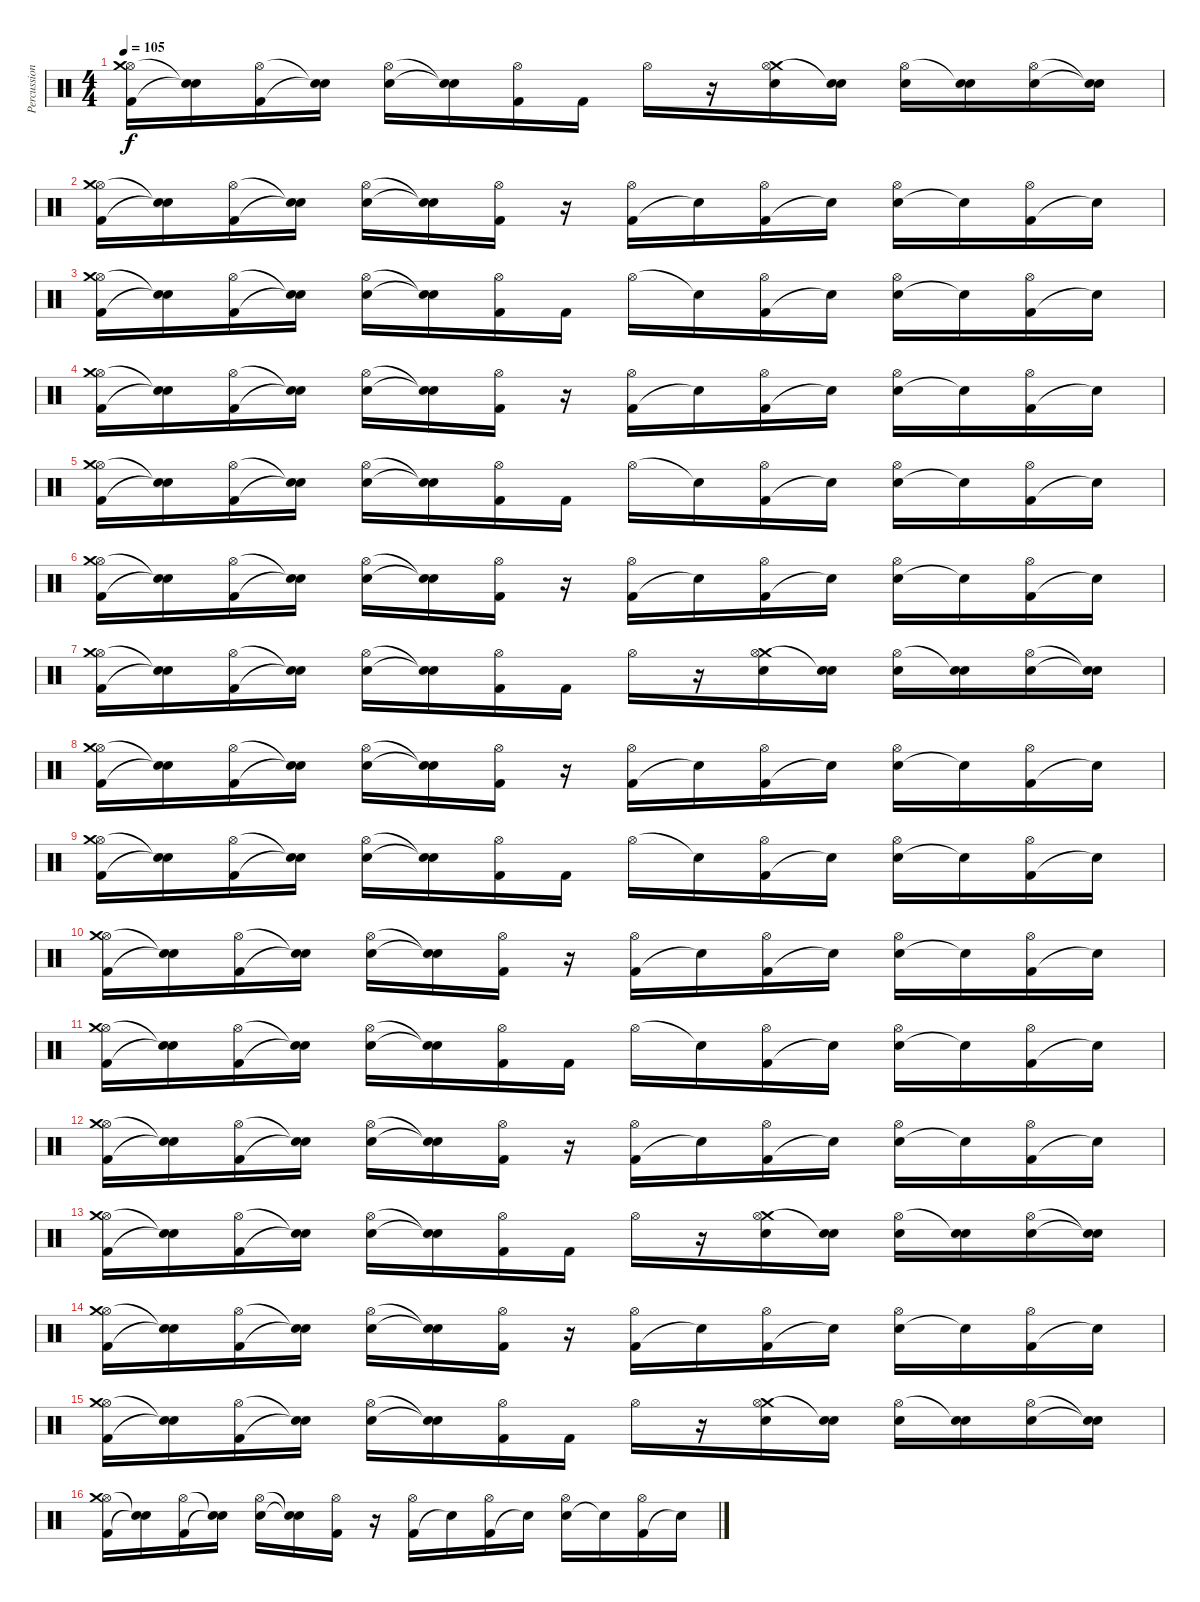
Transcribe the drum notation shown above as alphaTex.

\track ("Percussion" "Percussion") {instrument percussion}
\staff {score}
\articulation defaults
\ts (4 4)
\tempo 105
\clef neutral
\ks c
("Kick (hit) 2" "Hi-Hat (open)" "Crash medium (hit)").16{dy f} ("Snare (hit)"{t} "Snare (hit)"{t}).16 ("Kick (hit) 2" "Hi-Hat (open)").16 ("Snare (hit)"{t} "Snare (hit)"{t}).16 ("Electric Snare (hit)" "Hi-Hat (open)").16 ("Snare (hit)"{t} "Snare (hit)"{t}).16 ("Kick (hit) 2" "Hi-Hat (open)").16 "Kick (hit) 2".16 "Hi-Hat (open)".16 r.16 ("Snare (hit) 2" "Crash medium (hit)" "Hi-Hat (open)").16 ("Snare (hit) 2" "Snare (hit)"{t}).16 ("Snare (hit) 2" "Hi-Hat (open)").16 ("Snare (hit) 2" "Snare (hit)"{t}).16 ("Snare (hit) 2" "Hi-Hat (open)").16 ("Snare (hit) 2"{t} "Snare (hit)"{t}).16 |
("Kick (hit) 2" "Hi-Hat (open)" "Crash medium (hit)").16 ("Snare (hit)"{t} "Snare (hit)"{t}).16 ("Kick (hit) 2" "Hi-Hat (open)").16 ("Snare (hit)"{t} "Snare (hit)"{t}).16 ("Electric Snare (hit)" "Hi-Hat (open)").16 ("Snare (hit)"{t} "Snare (hit)"{t}).16 ("Kick (hit) 2" "Hi-Hat (open)").16 r.16 ("Kick (hit) 2" "Hi-Hat (open)").16 "Snare (hit)"{t}.16 ("Kick (hit) 2" "Hi-Hat (open)").16 "Snare (hit)"{t}.16 ("Snare (hit) 2" "Hi-Hat (open)").16 "Snare (hit)"{t}.16 ("Kick (hit) 2" "Hi-Hat (open)").16 "Snare (hit)"{t}.16 |
("Kick (hit) 2" "Hi-Hat (open)" "Crash medium (hit)").16 ("Snare (hit)"{t} "Snare (hit)"{t}).16 ("Kick (hit) 2" "Hi-Hat (open)").16 ("Snare (hit)"{t} "Snare (hit)"{t}).16 ("Electric Snare (hit)" "Hi-Hat (open)").16 ("Snare (hit)"{t} "Snare (hit)"{t}).16 ("Kick (hit) 2" "Hi-Hat (open)").16 "Kick (hit) 2".16 "Hi-Hat (open)".16 "Snare (hit)"{t}.16 ("Kick (hit) 2" "Hi-Hat (open)").16 "Snare (hit)"{t}.16 ("Snare (hit) 2" "Hi-Hat (open)").16 "Snare (hit)"{t}.16 ("Kick (hit) 2" "Hi-Hat (open)").16 "Snare (hit)"{t}.16 |
("Kick (hit) 2" "Hi-Hat (open)" "Crash medium (hit)").16 ("Snare (hit)"{t} "Snare (hit)"{t}).16 ("Kick (hit) 2" "Hi-Hat (open)").16 ("Snare (hit)"{t} "Snare (hit)"{t}).16 ("Electric Snare (hit)" "Hi-Hat (open)").16 ("Snare (hit)"{t} "Snare (hit)"{t}).16 ("Kick (hit) 2" "Hi-Hat (open)").16 r.16 ("Kick (hit) 2" "Hi-Hat (open)").16 "Snare (hit)"{t}.16 ("Kick (hit) 2" "Hi-Hat (open)").16 "Snare (hit)"{t}.16 ("Snare (hit) 2" "Hi-Hat (open)").16 "Snare (hit)"{t}.16 ("Kick (hit) 2" "Hi-Hat (open)").16 "Snare (hit)"{t}.16 |
("Kick (hit) 2" "Hi-Hat (open)" "Crash medium (hit)").16 ("Snare (hit)"{t} "Snare (hit)"{t}).16 ("Kick (hit) 2" "Hi-Hat (open)").16 ("Snare (hit)"{t} "Snare (hit)"{t}).16 ("Electric Snare (hit)" "Hi-Hat (open)").16 ("Snare (hit)"{t} "Snare (hit)"{t}).16 ("Kick (hit) 2" "Hi-Hat (open)").16 "Kick (hit) 2".16 "Hi-Hat (open)".16 "Snare (hit)"{t}.16 ("Kick (hit) 2" "Hi-Hat (open)").16 "Snare (hit)"{t}.16 ("Snare (hit) 2" "Hi-Hat (open)").16 "Snare (hit)"{t}.16 ("Kick (hit) 2" "Hi-Hat (open)").16 "Snare (hit)"{t}.16 |
("Kick (hit) 2" "Hi-Hat (open)" "Crash medium (hit)").16 ("Snare (hit)"{t} "Snare (hit)"{t}).16 ("Kick (hit) 2" "Hi-Hat (open)").16 ("Snare (hit)"{t} "Snare (hit)"{t}).16 ("Electric Snare (hit)" "Hi-Hat (open)").16 ("Snare (hit)"{t} "Snare (hit)"{t}).16 ("Kick (hit) 2" "Hi-Hat (open)").16 r.16 ("Kick (hit) 2" "Hi-Hat (open)").16 "Snare (hit)"{t}.16 ("Kick (hit) 2" "Hi-Hat (open)").16 "Snare (hit)"{t}.16 ("Snare (hit) 2" "Hi-Hat (open)").16 "Snare (hit)"{t}.16 ("Kick (hit) 2" "Hi-Hat (open)").16 "Snare (hit)"{t}.16 |
("Kick (hit) 2" "Hi-Hat (open)" "Crash medium (hit)").16 ("Snare (hit)"{t} "Snare (hit)"{t}).16 ("Kick (hit) 2" "Hi-Hat (open)").16 ("Snare (hit)"{t} "Snare (hit)"{t}).16 ("Electric Snare (hit)" "Hi-Hat (open)").16 ("Snare (hit)"{t} "Snare (hit)"{t}).16 ("Kick (hit) 2" "Hi-Hat (open)").16 "Kick (hit) 2".16 "Hi-Hat (open)".16 r.16 ("Snare (hit) 2" "Crash medium (hit)" "Hi-Hat (open)").16 ("Snare (hit) 2" "Snare (hit)"{t}).16 ("Snare (hit) 2" "Hi-Hat (open)").16 ("Snare (hit) 2" "Snare (hit)"{t}).16 ("Snare (hit) 2" "Hi-Hat (open)").16 ("Snare (hit) 2"{t} "Snare (hit)"{t}).16 |
("Kick (hit) 2" "Hi-Hat (open)" "Crash medium (hit)").16 ("Snare (hit)"{t} "Snare (hit)"{t}).16 ("Kick (hit) 2" "Hi-Hat (open)").16 ("Snare (hit)"{t} "Snare (hit)"{t}).16 ("Electric Snare (hit)" "Hi-Hat (open)").16 ("Snare (hit)"{t} "Snare (hit)"{t}).16 ("Kick (hit) 2" "Hi-Hat (open)").16 r.16 ("Kick (hit) 2" "Hi-Hat (open)").16 "Snare (hit)"{t}.16 ("Kick (hit) 2" "Hi-Hat (open)").16 "Snare (hit)"{t}.16 ("Snare (hit) 2" "Hi-Hat (open)").16 "Snare (hit)"{t}.16 ("Kick (hit) 2" "Hi-Hat (open)").16 "Snare (hit)"{t}.16 |
("Kick (hit) 2" "Hi-Hat (open)" "Crash medium (hit)").16 ("Snare (hit)"{t} "Snare (hit)"{t}).16 ("Kick (hit) 2" "Hi-Hat (open)").16 ("Snare (hit)"{t} "Snare (hit)"{t}).16 ("Electric Snare (hit)" "Hi-Hat (open)").16 ("Snare (hit)"{t} "Snare (hit)"{t}).16 ("Kick (hit) 2" "Hi-Hat (open)").16 "Kick (hit) 2".16 "Hi-Hat (open)".16 "Snare (hit)"{t}.16 ("Kick (hit) 2" "Hi-Hat (open)").16 "Snare (hit)"{t}.16 ("Snare (hit) 2" "Hi-Hat (open)").16 "Snare (hit)"{t}.16 ("Kick (hit) 2" "Hi-Hat (open)").16 "Snare (hit)"{t}.16 |
("Kick (hit) 2" "Hi-Hat (open)" "Crash medium (hit)").16 ("Snare (hit)"{t} "Snare (hit)"{t}).16 ("Kick (hit) 2" "Hi-Hat (open)").16 ("Snare (hit)"{t} "Snare (hit)"{t}).16 ("Electric Snare (hit)" "Hi-Hat (open)").16 ("Snare (hit)"{t} "Snare (hit)"{t}).16 ("Kick (hit) 2" "Hi-Hat (open)").16 r.16 ("Kick (hit) 2" "Hi-Hat (open)").16 "Snare (hit)"{t}.16 ("Kick (hit) 2" "Hi-Hat (open)").16 "Snare (hit)"{t}.16 ("Snare (hit) 2" "Hi-Hat (open)").16 "Snare (hit)"{t}.16 ("Kick (hit) 2" "Hi-Hat (open)").16 "Snare (hit)"{t}.16 |
("Kick (hit) 2" "Hi-Hat (open)" "Crash medium (hit)").16 ("Snare (hit)"{t} "Snare (hit)"{t}).16 ("Kick (hit) 2" "Hi-Hat (open)").16 ("Snare (hit)"{t} "Snare (hit)"{t}).16 ("Electric Snare (hit)" "Hi-Hat (open)").16 ("Snare (hit)"{t} "Snare (hit)"{t}).16 ("Kick (hit) 2" "Hi-Hat (open)").16 "Kick (hit) 2".16 "Hi-Hat (open)".16 "Snare (hit)"{t}.16 ("Kick (hit) 2" "Hi-Hat (open)").16 "Snare (hit)"{t}.16 ("Snare (hit) 2" "Hi-Hat (open)").16 "Snare (hit)"{t}.16 ("Kick (hit) 2" "Hi-Hat (open)").16 "Snare (hit)"{t}.16 |
("Kick (hit) 2" "Hi-Hat (open)" "Crash medium (hit)").16 ("Snare (hit)"{t} "Snare (hit)"{t}).16 ("Kick (hit) 2" "Hi-Hat (open)").16 ("Snare (hit)"{t} "Snare (hit)"{t}).16 ("Electric Snare (hit)" "Hi-Hat (open)").16 ("Snare (hit)"{t} "Snare (hit)"{t}).16 ("Kick (hit) 2" "Hi-Hat (open)").16 r.16 ("Kick (hit) 2" "Hi-Hat (open)").16 "Snare (hit)"{t}.16 ("Kick (hit) 2" "Hi-Hat (open)").16 "Snare (hit)"{t}.16 ("Snare (hit) 2" "Hi-Hat (open)").16 "Snare (hit)"{t}.16 ("Kick (hit) 2" "Hi-Hat (open)").16 "Snare (hit)"{t}.16 |
("Kick (hit) 2" "Hi-Hat (open)" "Crash medium (hit)").16 ("Snare (hit)"{t} "Snare (hit)"{t}).16 ("Kick (hit) 2" "Hi-Hat (open)").16 ("Snare (hit)"{t} "Snare (hit)"{t}).16 ("Electric Snare (hit)" "Hi-Hat (open)").16 ("Snare (hit)"{t} "Snare (hit)"{t}).16 ("Kick (hit) 2" "Hi-Hat (open)").16 "Kick (hit) 2".16 "Hi-Hat (open)".16 r.16 ("Snare (hit) 2" "Crash medium (hit)" "Hi-Hat (open)").16 ("Snare (hit) 2" "Snare (hit)"{t}).16 ("Snare (hit) 2" "Hi-Hat (open)").16 ("Snare (hit) 2" "Snare (hit)"{t}).16 ("Snare (hit) 2" "Hi-Hat (open)").16 ("Snare (hit) 2"{t} "Snare (hit)"{t}).16 |
("Kick (hit) 2" "Hi-Hat (open)" "Crash medium (hit)").16 ("Snare (hit)"{t} "Snare (hit)"{t}).16 ("Kick (hit) 2" "Hi-Hat (open)").16 ("Snare (hit)"{t} "Snare (hit)"{t}).16 ("Electric Snare (hit)" "Hi-Hat (open)").16 ("Snare (hit)"{t} "Snare (hit)"{t}).16 ("Kick (hit) 2" "Hi-Hat (open)").16 r.16 ("Kick (hit) 2" "Hi-Hat (open)").16 "Snare (hit)"{t}.16 ("Kick (hit) 2" "Hi-Hat (open)").16 "Snare (hit)"{t}.16 ("Snare (hit) 2" "Hi-Hat (open)").16 "Snare (hit)"{t}.16 ("Kick (hit) 2" "Hi-Hat (open)").16 "Snare (hit)"{t}.16 |
("Kick (hit) 2" "Hi-Hat (open)" "Crash medium (hit)").16 ("Snare (hit)"{t} "Snare (hit)"{t}).16 ("Kick (hit) 2" "Hi-Hat (open)").16 ("Snare (hit)"{t} "Snare (hit)"{t}).16 ("Electric Snare (hit)" "Hi-Hat (open)").16 ("Snare (hit)"{t} "Snare (hit)"{t}).16 ("Kick (hit) 2" "Hi-Hat (open)").16 "Kick (hit) 2".16 "Hi-Hat (open)".16 r.16 ("Snare (hit) 2" "Crash medium (hit)" "Hi-Hat (open)").16 ("Snare (hit) 2" "Snare (hit)"{t}).16 ("Snare (hit) 2" "Hi-Hat (open)").16 ("Snare (hit) 2" "Snare (hit)"{t}).16 ("Snare (hit) 2" "Hi-Hat (open)").16 ("Snare (hit) 2"{t} "Snare (hit)"{t}).16 |
("Kick (hit) 2" "Hi-Hat (open)" "Crash medium (hit)").16 ("Snare (hit)"{t} "Snare (hit)"{t}).16 ("Kick (hit) 2" "Hi-Hat (open)").16 ("Snare (hit)"{t} "Snare (hit)"{t}).16 ("Electric Snare (hit)" "Hi-Hat (open)").16 ("Snare (hit)"{t} "Snare (hit)"{t}).16 ("Kick (hit) 2" "Hi-Hat (open)").16 r.16 ("Kick (hit) 2" "Hi-Hat (open)").16 "Snare (hit)"{t}.16 ("Kick (hit) 2" "Hi-Hat (open)").16 "Snare (hit)"{t}.16 ("Snare (hit) 2" "Hi-Hat (open)").16 "Snare (hit)"{t}.16 ("Kick (hit) 2" "Hi-Hat (open)").16 "Snare (hit)"{t}.16
